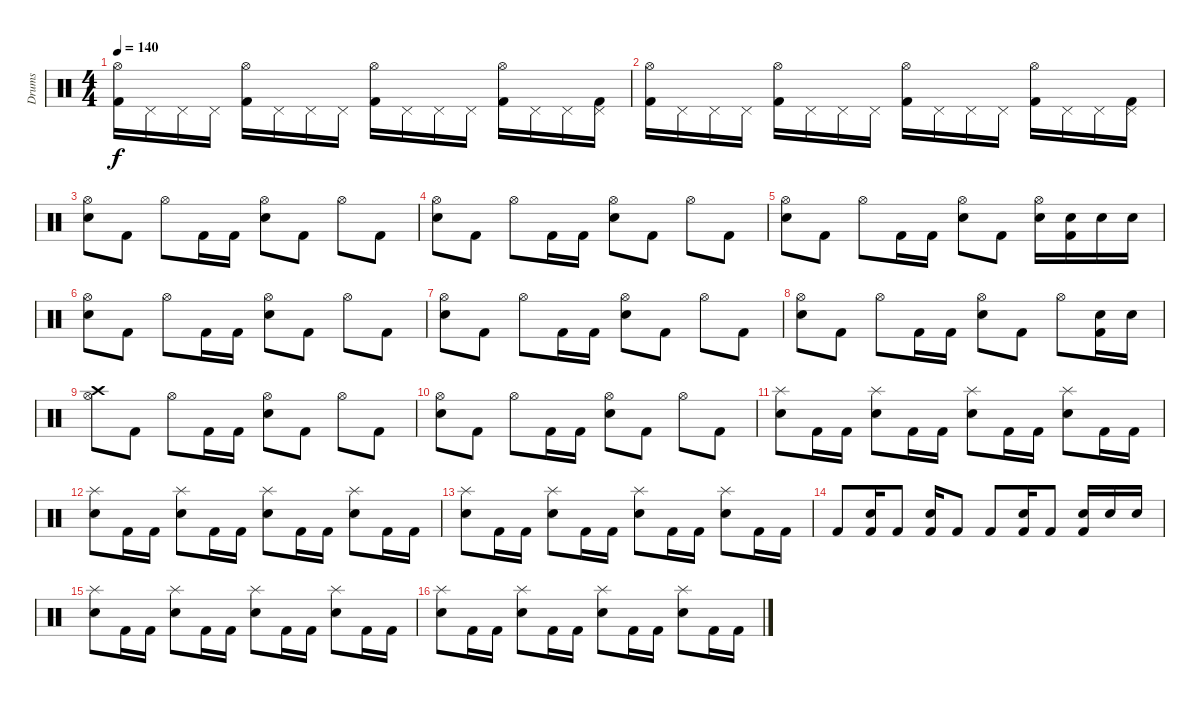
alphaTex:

\track ("Drums" "Drums") {instrument percussion}
\staff {score}
\articulation defaults
\ts (4 4)
\tempo 140
\clef neutral
\ks c
("Hi-Hat (open)" "Kick (hit) 2").16{dy f} "Pedal Hi-Hat (hit)".16 "Pedal Hi-Hat (hit)".16 "Pedal Hi-Hat (hit)".16 ("Hi-Hat (open)" "Kick (hit) 2").16 "Pedal Hi-Hat (hit)".16 "Pedal Hi-Hat (hit)".16 "Pedal Hi-Hat (hit)".16 ("Hi-Hat (open)" "Kick (hit) 2").16 "Pedal Hi-Hat (hit)".16 "Pedal Hi-Hat (hit)".16 "Pedal Hi-Hat (hit)".16 ("Hi-Hat (open)" "Kick (hit) 2").16 "Pedal Hi-Hat (hit)".16 "Pedal Hi-Hat (hit)".16 ("Pedal Hi-Hat (hit)" "Kick (hit) 2").16 |
("Hi-Hat (open)" "Kick (hit) 2").16 "Pedal Hi-Hat (hit)".16 "Pedal Hi-Hat (hit)".16 "Pedal Hi-Hat (hit)".16 ("Hi-Hat (open)" "Kick (hit) 2").16 "Pedal Hi-Hat (hit)".16 "Pedal Hi-Hat (hit)".16 "Pedal Hi-Hat (hit)".16 ("Hi-Hat (open)" "Kick (hit) 2").16 "Pedal Hi-Hat (hit)".16 "Pedal Hi-Hat (hit)".16 "Pedal Hi-Hat (hit)".16 ("Hi-Hat (open)" "Kick (hit) 2").16 "Pedal Hi-Hat (hit)".16 "Pedal Hi-Hat (hit)".16 ("Pedal Hi-Hat (hit)" "Kick (hit) 2").16 |
("Hi-Hat (open)" "Snare (hit) 2").8 "Kick (hit) 2".8 "Hi-Hat (open)".8 "Kick (hit) 2".16 "Kick (hit) 2".16 ("Hi-Hat (open)" "Snare (hit) 2").8 "Kick (hit) 2".8 "Hi-Hat (open)".8 "Kick (hit) 2".8 |
("Hi-Hat (open)" "Snare (hit) 2").8 "Kick (hit) 2".8 "Hi-Hat (open)".8 "Kick (hit) 2".16 "Kick (hit) 2".16 ("Hi-Hat (open)" "Snare (hit) 2").8 "Kick (hit) 2".8 "Hi-Hat (open)".8 "Kick (hit) 2".8 |
("Hi-Hat (open)" "Snare (hit) 2").8 "Kick (hit) 2".8 "Hi-Hat (open)".8 "Kick (hit) 2".16 "Kick (hit) 2".16 ("Hi-Hat (open)" "Snare (hit) 2").8 "Kick (hit) 2".8 ("Hi-Hat (open)" "Snare (hit) 2").16 ("Snare (hit) 2" "Kick (hit) 2").16 "Snare (hit) 2".16 "Snare (hit) 2".16 |
("Hi-Hat (open)" "Snare (hit) 2").8 "Kick (hit) 2".8 "Hi-Hat (open)".8 "Kick (hit) 2".16 "Kick (hit) 2".16 ("Hi-Hat (open)" "Snare (hit) 2").8 "Kick (hit) 2".8 "Hi-Hat (open)".8 "Kick (hit) 2".8 |
("Hi-Hat (open)" "Snare (hit) 2").8 "Kick (hit) 2".8 "Hi-Hat (open)".8 "Kick (hit) 2".16 "Kick (hit) 2".16 ("Hi-Hat (open)" "Snare (hit) 2").8 "Kick (hit) 2".8 "Hi-Hat (open)".8 "Kick (hit) 2".8 |
("Hi-Hat (open)" "Snare (hit) 2").8 "Kick (hit) 2".8 "Hi-Hat (open)".8 "Kick (hit) 2".16 "Kick (hit) 2".16 ("Hi-Hat (open)" "Snare (hit) 2").8 "Kick (hit) 2".8 "Hi-Hat (open)".8 ("Snare (hit) 2" "Kick (hit) 2").16 "Snare (hit) 2".16 |
("Crash high (hit)" "Hi-Hat (open)").8 "Kick (hit) 2".8 "Hi-Hat (open)".8 "Kick (hit) 2".16 "Kick (hit) 2".16 ("Hi-Hat (open)" "Snare (hit) 2").8 "Kick (hit) 2".8 "Hi-Hat (open)".8 "Kick (hit) 2".8 |
("Hi-Hat (open)" "Snare (hit) 2").8 "Kick (hit) 2".8 "Hi-Hat (open)".8 "Kick (hit) 2".16 "Kick (hit) 2".16 ("Hi-Hat (open)" "Snare (hit) 2").8 "Kick (hit) 2".8 "Hi-Hat (open)".8 "Kick (hit) 2".8 |
("Splash (hit)" "Snare (hit) 2").8 "Kick (hit) 2".16 "Kick (hit) 2".16 ("Splash (hit)" "Snare (hit) 2").8 "Kick (hit) 2".16 "Kick (hit) 2".16 ("Splash (hit)" "Snare (hit) 2").8 "Kick (hit) 2".16 "Kick (hit) 2".16 ("Splash (hit)" "Snare (hit) 2").8 "Kick (hit) 2".16 "Kick (hit) 2".16 |
("Splash (hit)" "Snare (hit) 2").8 "Kick (hit) 2".16 "Kick (hit) 2".16 ("Splash (hit)" "Snare (hit) 2").8 "Kick (hit) 2".16 "Kick (hit) 2".16 ("Splash (hit)" "Snare (hit) 2").8 "Kick (hit) 2".16 "Kick (hit) 2".16 ("Splash (hit)" "Snare (hit) 2").8 "Kick (hit) 2".16 "Kick (hit) 2".16 |
("Splash (hit)" "Snare (hit) 2").8 "Kick (hit) 2".16 "Kick (hit) 2".16 ("Splash (hit)" "Snare (hit) 2").8 "Kick (hit) 2".16 "Kick (hit) 2".16 ("Splash (hit)" "Snare (hit) 2").8 "Kick (hit) 2".16 "Kick (hit) 2".16 ("Splash (hit)" "Snare (hit) 2").8 "Kick (hit) 2".16 "Kick (hit) 2".16 |
"Kick (hit) 2".8 ("Snare (hit) 2" "Kick (hit) 2").16 "Kick (hit) 2".8 ("Snare (hit) 2" "Kick (hit) 2").16 "Kick (hit) 2".8 "Kick (hit) 2".8 ("Snare (hit) 2" "Kick (hit) 2").16 "Kick (hit) 2".8 ("Snare (hit) 2" "Kick (hit) 2").16 "Snare (hit) 2".16 "Snare (hit) 2".16 |
("Splash (hit)" "Snare (hit) 2").8 "Kick (hit) 2".16 "Kick (hit) 2".16 ("Splash (hit)" "Snare (hit) 2").8 "Kick (hit) 2".16 "Kick (hit) 2".16 ("Splash (hit)" "Snare (hit) 2").8 "Kick (hit) 2".16 "Kick (hit) 2".16 ("Splash (hit)" "Snare (hit) 2").8 "Kick (hit) 2".16 "Kick (hit) 2".16 |
("Splash (hit)" "Snare (hit) 2").8 "Kick (hit) 2".16 "Kick (hit) 2".16 ("Splash (hit)" "Snare (hit) 2").8 "Kick (hit) 2".16 "Kick (hit) 2".16 ("Splash (hit)" "Snare (hit) 2").8 "Kick (hit) 2".16 "Kick (hit) 2".16 ("Splash (hit)" "Snare (hit) 2").8 "Kick (hit) 2".16 "Kick (hit) 2".16
